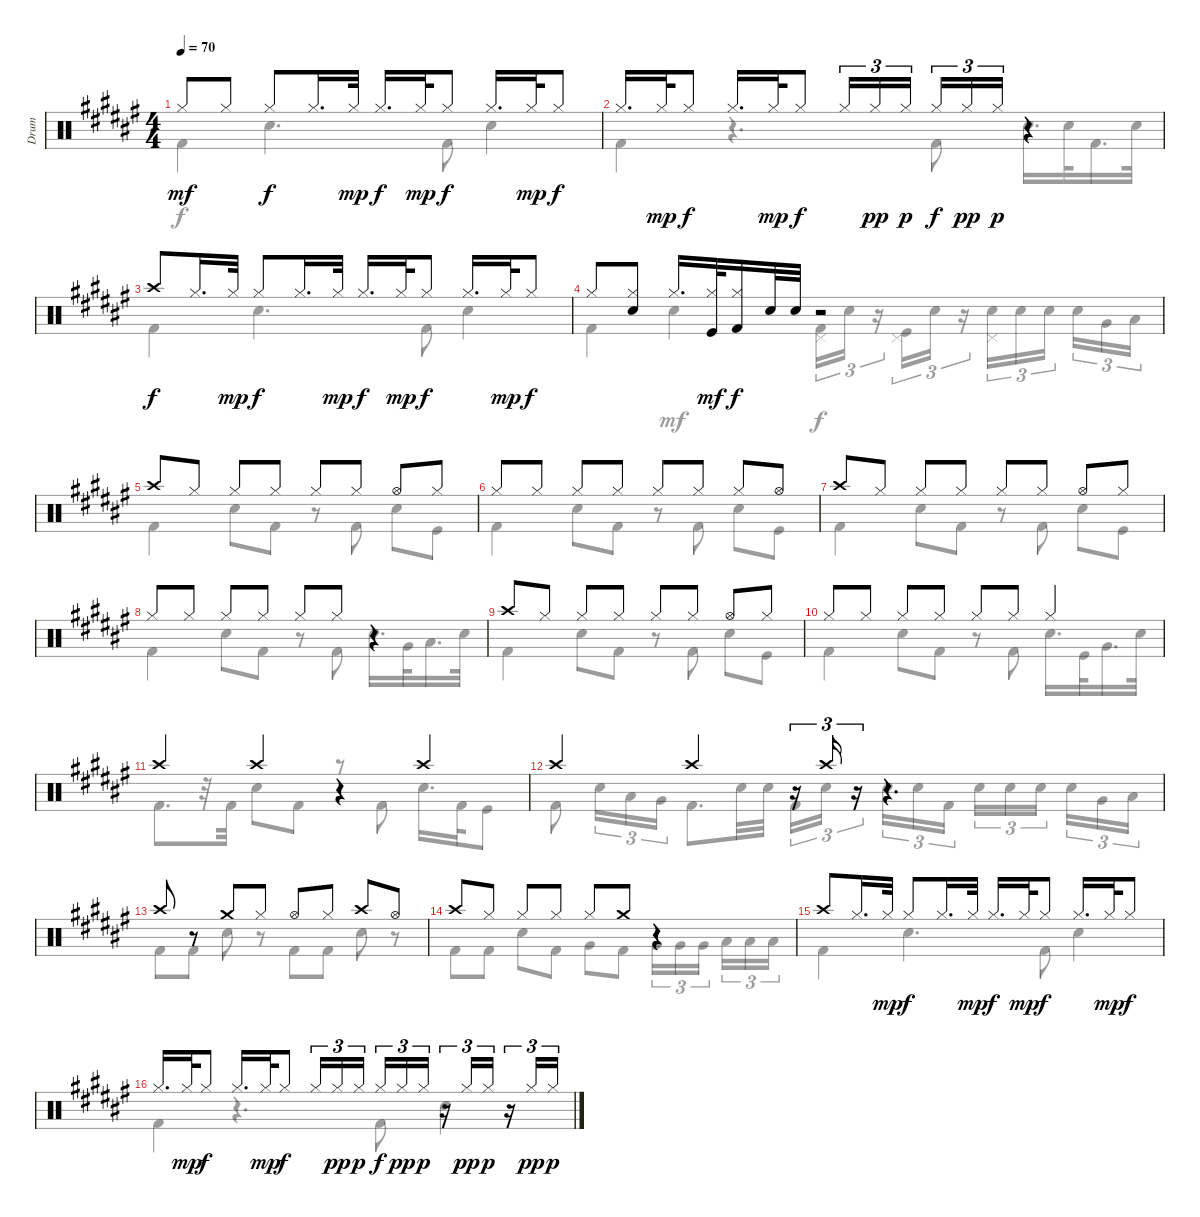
\track ("Drum" "Drum") {instrument percussion}
\staff {score}
\articulation defaults
\voice
\ts (4 4)
\tempo 70
\clef neutral
\ks f# "Hi-Hat (closed)".8{dy mf} "Hi-Hat (closed)".8 "Hi-Hat (closed)".8{dy f} "Hi-Hat (closed)".16{d} "Hi-Hat (closed)".32{dy mp} "Hi-Hat (closed)".16{d dy f} "Hi-Hat (closed)".32{dy mp} "Hi-Hat (closed)".8{dy f} "Hi-Hat (closed)".16{d} "Hi-Hat (closed)".32{dy mp} "Hi-Hat (closed)".8{dy f}
|
"Hi-Hat (closed)".16{d} "Hi-Hat (closed)".32{dy mp} "Hi-Hat (closed)".8{dy f} "Hi-Hat (closed)".16{d} "Hi-Hat (closed)".32{dy mp} "Hi-Hat (closed)".8{dy f} "Hi-Hat (closed)".16{tu (3 2)} "Hi-Hat (closed)".16{tu (3 2) dy pp} "Hi-Hat (closed)".16{tu (3 2) dy p beam splitsecondary} "Hi-Hat (closed)".16{tu (3 2) dy f} "Hi-Hat (closed)".16{tu (3 2) dy pp} "Hi-Hat (closed)".16{tu (3 2) dy p} r.4 |
"Crash high (hit)".8{dy f} "Hi-Hat (closed)".16{d} "Hi-Hat (closed)".32{dy mp} "Hi-Hat (closed)".8{dy f} "Hi-Hat (closed)".16{d} "Hi-Hat (closed)".32{dy mp} "Hi-Hat (closed)".16{d dy f} "Hi-Hat (closed)".32{dy mp} "Hi-Hat (closed)".8{dy f} "Hi-Hat (closed)".16{d} "Hi-Hat (closed)".32{dy mp} "Hi-Hat (closed)".8{dy f} |
"Hi-Hat (closed)".8 ("Hi-Hat (closed)" "Snare (hit) 2").8 "Hi-Hat (closed)".16{d} ("Hi-Hat (closed)" "Kick (hit)").32{dy mf} ("Hi-Hat (closed)" "Kick (hit) 2").16{dy f} "Snare (hit) 2".32 "Snare (hit) 2".32 r.2 |
"Crash high (hit)".8 "Hi-Hat (closed)".8 "Hi-Hat (closed)".8 "Hi-Hat (closed)".8 "Hi-Hat (closed)".8 "Hi-Hat (closed)".8 "Hi-Hat (open)".8 "Hi-Hat (closed)".8 |
"Hi-Hat (closed)".8 "Hi-Hat (closed)".8 "Hi-Hat (closed)".8 "Hi-Hat (closed)".8 "Hi-Hat (closed)".8 "Hi-Hat (closed)".8 "Hi-Hat (closed)".8 "Hi-Hat (open)".8 |
"Crash high (hit)".8 "Hi-Hat (closed)".8 "Hi-Hat (closed)".8 "Hi-Hat (closed)".8 "Hi-Hat (closed)".8 "Hi-Hat (closed)".8 "Hi-Hat (open)".8 "Hi-Hat (closed)".8 |
"Hi-Hat (closed)".8 "Hi-Hat (closed)".8 "Hi-Hat (closed)".8 "Hi-Hat (closed)".8 "Hi-Hat (closed)".8 "Hi-Hat (closed)".8 r.4 |
"Crash high (hit)".8 "Hi-Hat (closed)".8 "Hi-Hat (closed)".8 "Hi-Hat (closed)".8 "Hi-Hat (closed)".8 "Hi-Hat (closed)".8 "Hi-Hat (open)".8 "Hi-Hat (closed)".8 |
"Hi-Hat (closed)".8 "Hi-Hat (closed)".8 "Hi-Hat (closed)".8 "Hi-Hat (closed)".8 "Hi-Hat (closed)".8 "Hi-Hat (closed)".8 "Hi-Hat (closed)".4 |
"Crash high (hit)".4 "Crash high (hit)".4 r.4 "Crash high (hit)".4 |
"Crash high (hit)".4 "Crash high (hit)".4 r.16{tu (3 2)} "Crash high (hit)".16{tu (3 2)} r.16{tu (3 2)} r.4{d} |
"Crash high (hit)".8 r.8 "Crash medium (hit)".8 "Hi-Hat (closed)".8 "Hi-Hat (open)".8 "Hi-Hat (closed)".8 "Crash high (hit)".8 "Hi-Hat (open)".8 |
"Crash high (hit)".8 "Hi-Hat (closed)".8 "Hi-Hat (closed)".8 "Hi-Hat (closed)".8 "Hi-Hat (closed)".8 "Crash medium (hit)".8 r.4 |
"Crash high (hit)".8 "Hi-Hat (closed)".16{d} "Hi-Hat (closed)".32{dy mp} "Hi-Hat (closed)".8{dy f} "Hi-Hat (closed)".16{d} "Hi-Hat (closed)".32{dy mp} "Hi-Hat (closed)".16{d dy f} "Hi-Hat (closed)".32{dy mp} "Hi-Hat (closed)".8{dy f} "Hi-Hat (closed)".16{d} "Hi-Hat (closed)".32{dy mp} "Hi-Hat (closed)".8{dy f} |
"Hi-Hat (closed)".16{d} "Hi-Hat (closed)".32{dy mp} "Hi-Hat (closed)".8{dy f} "Hi-Hat (closed)".16{d} "Hi-Hat (closed)".32{dy mp} "Hi-Hat (closed)".8{dy f} "Hi-Hat (closed)".16{tu (3 2)} "Hi-Hat (closed)".16{tu (3 2) dy pp} "Hi-Hat (closed)".16{tu (3 2) dy p beam splitsecondary} "Hi-Hat (closed)".16{tu (3 2) dy f} "Hi-Hat (closed)".16{tu (3 2) dy pp} "Hi-Hat (closed)".16{tu (3 2) dy p} r.16{tu (3 2)} "Hi-Hat (closed)".16{tu (3 2) dy pp} "Hi-Hat (closed)".16{tu (3 2) dy p} r.16{tu (3 2)} "Hi-Hat (closed)".16{tu (3 2) dy pp} "Hi-Hat (closed)".16{tu (3 2) dy p}
\voice
\clef neutral
\ottava regular
\simile none
\ks f# "Kick (hit) 2".4{dy f} "Snare (hit) 2".4{d} "Kick (hit) 2".8 "Snare (hit) 2".4
|
"Kick (hit) 2".4 r.4{d} "Kick (hit) 2".8 "Snare (hit) 2".16{d} "Snare (hit) 2".32 "Kick (hit) 2".16{d} "Snare (hit) 2".32 |
"Kick (hit) 2".4 "Snare (hit) 2".4{d} "Kick (hit) 2".8 "Snare (hit) 2".4 |
"Kick (hit) 2".4 "Snare (hit) 2".4{dy mf} ("Pedal Hi-Hat (hit)" "Kick (hit) 2").16{tu (3 2) dy f} "Snare (hit) 2".16{tu (3 2)} r.16{tu (3 2)} ("Pedal Hi-Hat (hit)" "Kick (hit)").16{tu (3 2)} "Snare (hit) 2".16{tu (3 2)} r.16{tu (3 2)} ("Pedal Hi-Hat (hit)" "Snare (hit) 2").16{tu (3 2)} "Snare (hit) 2".16{tu (3 2)} "Snare (hit) 2".16{tu (3 2) beam splitsecondary} "Snare (hit) 2".16{tu (3 2)} "Very Low Tom (hit)".16{tu (3 2)} "Low Floor Tom (hit)".16{tu (3 2)} |
"Kick (hit) 2".4 "Snare (hit) 2".8 "Kick (hit) 2".8 r.8 "Kick (hit) 2".8 "Snare (hit) 2".8 "Kick (hit)".8 |
"Kick (hit) 2".4 "Snare (hit) 2".8 "Kick (hit) 2".8 r.8 "Kick (hit) 2".8 "Snare (hit) 2".8 "Kick (hit)".8 |
"Kick (hit) 2".4 "Snare (hit) 2".8 "Kick (hit) 2".8 r.8 "Kick (hit) 2".8 "Snare (hit) 2".8 "Kick (hit)".8 |
"Kick (hit) 2".4 "Snare (hit) 2".8 "Kick (hit) 2".8 r.8 "Kick (hit) 2".8 "Snare (hit) 2".16{d} "Very Low Tom (hit)".32 "Low Floor Tom (hit)".16{d} "Snare (hit) 2".32 |
"Kick (hit) 2".4 "Snare (hit) 2".8 "Kick (hit) 2".8 r.8 "Kick (hit) 2".8 "Snare (hit) 2".8 "Kick (hit)".8 |
"Kick (hit) 2".4 "Snare (hit) 2".8 "Kick (hit) 2".8 r.8 "Kick (hit) 2".8 "Snare (hit) 2".16{d} "Kick (hit)".32 "Very Low Tom (hit)".16{d} "Snare (hit) 2".32 |
"Kick (hit) 2".8{d} r.32 "Kick (hit) 2".32 "Snare (hit) 2".8 "Kick (hit) 2".8 r.8 "Kick (hit) 2".8 "Snare (hit) 2".16{d} "Kick (hit) 2".32 "Kick (hit)".8 |
"Kick (hit) 2".8 "Snare (hit) 2".16{tu (3 2)} "Low Tom (hit)".16{tu (3 2)} "Very Low Tom (hit)".16{tu (3 2)} "Kick (hit) 2".8{d} "Snare (hit) 2".32 "Snare (hit) 2".32 "Kick (hit) 2".16{tu (3 2)} "Snare (hit) 2".16{tu (3 2)} r.16{tu (3 2)} "Snare (hit) 2".16{tu (3 2)} "Snare (hit) 2".16{tu (3 2)} "Kick (hit) 2".16{tu (3 2)} "Snare (hit) 2".16{tu (3 2)} "Snare (hit) 2".16{tu (3 2)} "Snare (hit) 2".16{tu (3 2) beam splitsecondary} "Snare (hit) 2".16{tu (3 2)} "Very Low Tom (hit)".16{tu (3 2)} "Low Floor Tom (hit)".16{tu (3 2)} |
"Kick (hit) 2".8 "Kick (hit) 2".8 "Snare (hit) 2".8 r.8 "Kick (hit) 2".8 "Kick (hit) 2".8 "Snare (hit) 2".8 r.8 |
"Kick (hit) 2".8 "Kick (hit) 2".8 "Snare (hit) 2".8 "Kick (hit) 2".8 "Very Low Tom (hit)".8 "Kick (hit) 2".8 "Very Low Tom (hit)".16{tu (3 2)} "Very Low Tom (hit)".16{tu (3 2)} "Very Low Tom (hit)".16{tu (3 2) beam splitsecondary} "Low Floor Tom (hit)".16{tu (3 2)} "Low Floor Tom (hit)".16{tu (3 2)} "Low Floor Tom (hit)".16{tu (3 2)} |
"Kick (hit) 2".4 "Snare (hit) 2".4{d} "Kick (hit) 2".8 "Snare (hit) 2".4 |
"Kick (hit) 2".4 r.4{d} "Kick (hit) 2".8 "Snare (hit) 2".4
